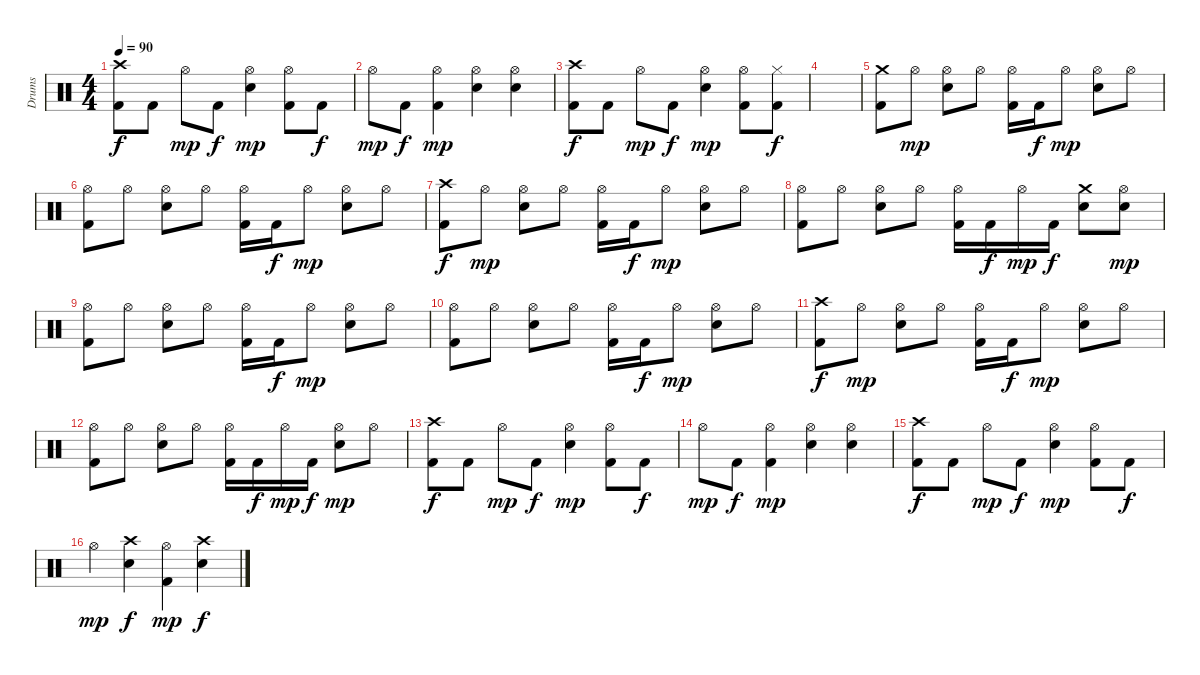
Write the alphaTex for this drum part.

\track ("Drums" "Drums") {instrument percussion}
\staff {score}
\articulation defaults
\ts (4 4)
\tempo 90
\clef neutral
\ks c
("Crash high (hit)" "Kick (hit) 2").8{dy f} "Kick (hit) 2".8 "Hi-Hat (open)".8{dy mp} "Kick (hit) 2".8{dy f} ("Hi-Hat (open)" "Snare (hit) 2").4{dy mp} ("Hi-Hat (open)" "Kick (hit) 2").8 "Kick (hit) 2".8{dy f} |
"Hi-Hat (open)".8{dy mp} "Kick (hit) 2".8{dy f} ("Hi-Hat (open)" "Kick (hit) 2").4{dy mp} ("Hi-Hat (open)" "Snare (hit) 2").4 ("Hi-Hat (open)" "Snare (hit) 2").4 |
("Crash high (hit)" "Kick (hit) 2").8{dy f} "Kick (hit) 2".8 "Hi-Hat (open)".8{dy mp} "Kick (hit) 2".8{dy f} ("Hi-Hat (open)" "Snare (hit) 2").4{dy mp} ("Hi-Hat (open)" "Kick (hit) 2").8 ("Hi-Hat (closed)" "Kick (hit) 2").8{dy f} |
|
\section ("" "")
("Crash medium (hit)" "Kick (hit) 2").8 "Hi-Hat (open)".8{dy mp} ("Hi-Hat (open)" "Snare (hit) 2").8 "Hi-Hat (open)".8 ("Hi-Hat (open)" "Kick (hit) 2").16 "Kick (hit) 2".16{dy f} "Hi-Hat (open)".8{dy mp} ("Hi-Hat (open)" "Snare (hit) 2").8 "Hi-Hat (open)".8 |
("Hi-Hat (open)" "Kick (hit) 2").8 "Hi-Hat (open)".8 ("Hi-Hat (open)" "Snare (hit) 2").8 "Hi-Hat (open)".8 ("Hi-Hat (open)" "Kick (hit) 2").16 "Kick (hit) 2".16{dy f} "Hi-Hat (open)".8{dy mp} ("Hi-Hat (open)" "Snare (hit) 2").8 "Hi-Hat (open)".8 |
("Crash high (hit)" "Kick (hit) 2").8{dy f} "Hi-Hat (open)".8{dy mp} ("Hi-Hat (open)" "Snare (hit) 2").8 "Hi-Hat (open)".8 ("Hi-Hat (open)" "Kick (hit) 2").16 "Kick (hit) 2".16{dy f} "Hi-Hat (open)".8{dy mp} ("Hi-Hat (open)" "Snare (hit) 2").8 "Hi-Hat (open)".8 |
("Hi-Hat (open)" "Kick (hit) 2").8 "Hi-Hat (open)".8 ("Hi-Hat (open)" "Snare (hit) 2").8 "Hi-Hat (open)".8 ("Hi-Hat (open)" "Kick (hit) 2").16 "Kick (hit) 2".16{dy f} "Hi-Hat (open)".16{dy mp} "Kick (hit) 2".16{dy f} ("Crash medium (hit)" "Snare (hit) 2").8 ("Hi-Hat (open)" "Snare (hit) 2").8{dy mp} |
("Hi-Hat (open)" "Kick (hit) 2").8 "Hi-Hat (open)".8 ("Hi-Hat (open)" "Snare (hit) 2").8 "Hi-Hat (open)".8 ("Hi-Hat (open)" "Kick (hit) 2").16 "Kick (hit) 2".16{dy f} "Hi-Hat (open)".8{dy mp} ("Hi-Hat (open)" "Snare (hit) 2").8 "Hi-Hat (open)".8 |
("Hi-Hat (open)" "Kick (hit) 2").8 "Hi-Hat (open)".8 ("Hi-Hat (open)" "Snare (hit) 2").8 "Hi-Hat (open)".8 ("Hi-Hat (open)" "Kick (hit) 2").16 "Kick (hit) 2".16{dy f} "Hi-Hat (open)".8{dy mp} ("Hi-Hat (open)" "Snare (hit) 2").8 "Hi-Hat (open)".8 |
("Crash high (hit)" "Kick (hit) 2").8{dy f} "Hi-Hat (open)".8{dy mp} ("Hi-Hat (open)" "Snare (hit) 2").8 "Hi-Hat (open)".8 ("Hi-Hat (open)" "Kick (hit) 2").16 "Kick (hit) 2".16{dy f} "Hi-Hat (open)".8{dy mp} ("Hi-Hat (open)" "Snare (hit) 2").8 "Hi-Hat (open)".8 |
("Hi-Hat (open)" "Kick (hit) 2").8 "Hi-Hat (open)".8 ("Hi-Hat (open)" "Snare (hit) 2").8 "Hi-Hat (open)".8 ("Hi-Hat (open)" "Kick (hit) 2").16 "Kick (hit) 2".16{dy f} "Hi-Hat (open)".16{dy mp} "Kick (hit) 2".16{dy f} ("Hi-Hat (open)" "Snare (hit) 2").8{dy mp} "Hi-Hat (open)".8 |
\section ("" "")
("Crash high (hit)" "Kick (hit) 2").8{dy f} "Kick (hit) 2".8 "Hi-Hat (open)".8{dy mp} "Kick (hit) 2".8{dy f} ("Hi-Hat (open)" "Snare (hit) 2").4{dy mp} ("Hi-Hat (open)" "Kick (hit) 2").8 "Kick (hit) 2".8{dy f} |
"Hi-Hat (open)".8{dy mp} "Kick (hit) 2".8{dy f} ("Hi-Hat (open)" "Kick (hit) 2").4{dy mp} ("Hi-Hat (open)" "Snare (hit) 2").4 ("Hi-Hat (open)" "Snare (hit) 2").4 |
("Crash high (hit)" "Kick (hit) 2").8{dy f} "Kick (hit) 2".8 "Hi-Hat (open)".8{dy mp} "Kick (hit) 2".8{dy f} ("Hi-Hat (open)" "Snare (hit) 2").4{dy mp} ("Hi-Hat (open)" "Kick (hit) 2").8 "Kick (hit) 2".8{dy f} |
"Hi-Hat (open)".4{dy mp} ("Crash high (hit)" "Snare (hit) 2").4{dy f} ("Hi-Hat (open)" "Kick (hit) 2").4{dy mp} ("Crash high (hit)" "Snare (hit) 2").4{dy f}
